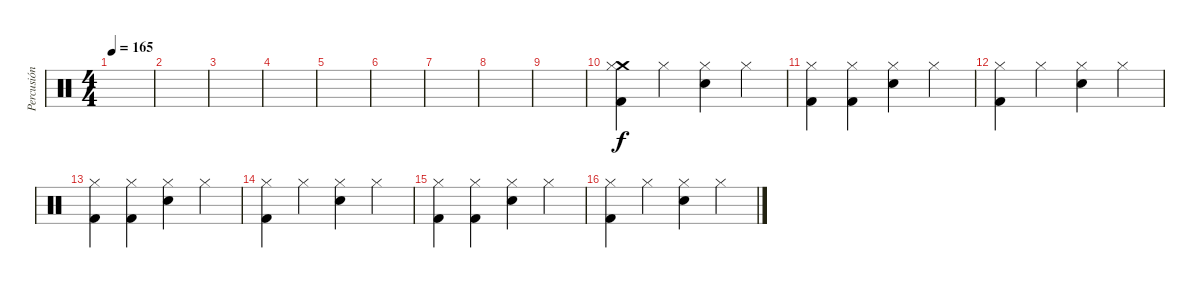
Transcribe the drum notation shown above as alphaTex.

\track ("Percusión" "Percusión") {instrument percussion}
\staff {score}
\articulation defaults
\ts (4 4)
\tempo 165
\clef neutral
\ks c
|
|
|
|
|
|
|
|
|
("Crash medium (hit)" "Hi-Hat (closed)" "Kick (hit) 2").4 "Hi-Hat (closed)".4 ("Hi-Hat (closed)" "Electric Snare (hit)").4 "Hi-Hat (closed)".4 |
("Hi-Hat (closed)" "Kick (hit) 2").4 ("Hi-Hat (closed)" "Kick (hit) 2").4 ("Hi-Hat (closed)" "Electric Snare (hit)").4 "Hi-Hat (closed)".4 |
("Hi-Hat (closed)" "Kick (hit) 2").4 "Hi-Hat (closed)".4 ("Hi-Hat (closed)" "Electric Snare (hit)").4 "Hi-Hat (closed)".4 |
("Hi-Hat (closed)" "Kick (hit) 2").4 ("Hi-Hat (closed)" "Kick (hit) 2").4 ("Hi-Hat (closed)" "Electric Snare (hit)").4 "Hi-Hat (closed)".4 |
("Hi-Hat (closed)" "Kick (hit) 2").4 "Hi-Hat (closed)".4 ("Hi-Hat (closed)" "Electric Snare (hit)").4 "Hi-Hat (closed)".4 |
("Hi-Hat (closed)" "Kick (hit) 2").4 ("Hi-Hat (closed)" "Kick (hit) 2").4 ("Hi-Hat (closed)" "Electric Snare (hit)").4 "Hi-Hat (closed)".4 |
("Hi-Hat (closed)" "Kick (hit) 2").4 "Hi-Hat (closed)".4 ("Hi-Hat (closed)" "Electric Snare (hit)").4 "Hi-Hat (closed)".4
